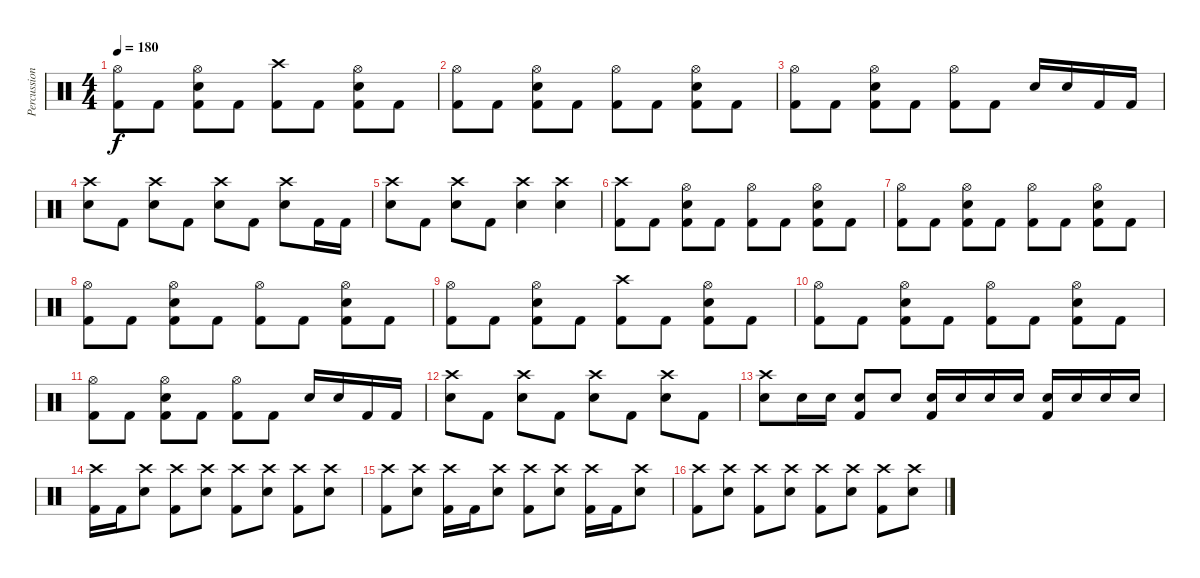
\track ("Percussion" "Percussion") {instrument percussion}
\staff {score}
\articulation defaults
\ts (4 4)
\tempo 180
\clef neutral
\ks c
("Hi-Hat (open)" "Kick (hit) 2").8{dy f} "Kick (hit) 2".8 ("Hi-Hat (open)" "Snare (hit) 2" "Kick (hit) 2").8 "Kick (hit) 2".8 ("Crash high (hit)" "Kick (hit) 2").8 "Kick (hit) 2".8 ("Hi-Hat (open)" "Snare (hit) 2" "Kick (hit) 2").8 "Kick (hit) 2".8 |
("Hi-Hat (open)" "Kick (hit) 2").8 "Kick (hit) 2".8 ("Hi-Hat (open)" "Snare (hit) 2" "Kick (hit) 2").8 "Kick (hit) 2".8 ("Hi-Hat (open)" "Kick (hit) 2").8 "Kick (hit) 2".8 ("Hi-Hat (open)" "Snare (hit) 2" "Kick (hit) 2").8 "Kick (hit) 2".8 |
("Hi-Hat (open)" "Kick (hit) 2").8 "Kick (hit) 2".8 ("Hi-Hat (open)" "Snare (hit) 2" "Kick (hit) 2").8 "Kick (hit) 2".8 ("Hi-Hat (open)" "Kick (hit) 2").8 "Kick (hit) 2".8 "Snare (hit) 2".16 "Snare (hit) 2".16 "Kick (hit) 2".16 "Kick (hit) 2".16 |
("Crash high (hit)" "Snare (hit) 2").8 "Kick (hit) 2".8 ("Crash high (hit)" "Snare (hit) 2").8 "Kick (hit) 2".8 ("Crash high (hit)" "Snare (hit) 2").8 "Kick (hit) 2".8 ("Crash high (hit)" "Snare (hit) 2").8 "Kick (hit) 2".16 "Kick (hit) 2".16 |
("Crash high (hit)" "Snare (hit) 2").8 "Kick (hit) 2".8 ("Crash high (hit)" "Snare (hit) 2").8 "Kick (hit) 2".8 ("Crash high (hit)" "Snare (hit) 2").4 ("Crash high (hit)" "Snare (hit) 2").4 |
("Crash high (hit)" "Kick (hit) 2").8 "Kick (hit) 2".8 ("Hi-Hat (open)" "Snare (hit) 2" "Kick (hit) 2").8 "Kick (hit) 2".8 ("Hi-Hat (open)" "Kick (hit) 2").8 "Kick (hit) 2".8 ("Hi-Hat (open)" "Snare (hit) 2" "Kick (hit) 2").8 "Kick (hit) 2".8 |
("Hi-Hat (open)" "Kick (hit) 2").8 "Kick (hit) 2".8 ("Hi-Hat (open)" "Snare (hit) 2" "Kick (hit) 2").8 "Kick (hit) 2".8 ("Hi-Hat (open)" "Kick (hit) 2").8 "Kick (hit) 2".8 ("Hi-Hat (open)" "Snare (hit) 2" "Kick (hit) 2").8 "Kick (hit) 2".8 |
("Hi-Hat (open)" "Kick (hit) 2").8 "Kick (hit) 2".8 ("Hi-Hat (open)" "Snare (hit) 2" "Kick (hit) 2").8 "Kick (hit) 2".8 ("Hi-Hat (open)" "Kick (hit) 2").8 "Kick (hit) 2".8 ("Hi-Hat (open)" "Snare (hit) 2" "Kick (hit) 2").8 "Kick (hit) 2".8 |
("Hi-Hat (open)" "Kick (hit) 2").8 "Kick (hit) 2".8 ("Hi-Hat (open)" "Snare (hit) 2" "Kick (hit) 2").8 "Kick (hit) 2".8 ("Crash high (hit)" "Kick (hit) 2").8 "Kick (hit) 2".8 ("Hi-Hat (open)" "Snare (hit) 2" "Kick (hit) 2").8 "Kick (hit) 2".8 |
("Hi-Hat (open)" "Kick (hit) 2").8 "Kick (hit) 2".8 ("Hi-Hat (open)" "Snare (hit) 2" "Kick (hit) 2").8 "Kick (hit) 2".8 ("Hi-Hat (open)" "Kick (hit) 2").8 "Kick (hit) 2".8 ("Hi-Hat (open)" "Snare (hit) 2" "Kick (hit) 2").8 "Kick (hit) 2".8 |
("Hi-Hat (open)" "Kick (hit) 2").8 "Kick (hit) 2".8 ("Hi-Hat (open)" "Snare (hit) 2" "Kick (hit) 2").8 "Kick (hit) 2".8 ("Hi-Hat (open)" "Kick (hit) 2").8 "Kick (hit) 2".8 "Snare (hit) 2".16 "Snare (hit) 2".16 "Kick (hit) 2".16 "Kick (hit) 2".16 |
("Crash high (hit)" "Snare (hit) 2").8 "Kick (hit) 2".8 ("Crash high (hit)" "Snare (hit) 2").8 "Kick (hit) 2".8 ("Crash high (hit)" "Snare (hit) 2").8 "Kick (hit) 2".8 ("Crash high (hit)" "Snare (hit) 2").8 "Kick (hit) 2".8 |
("Crash high (hit)" "Snare (hit) 2").8 "Snare (hit) 2".16 "Snare (hit) 2".16 ("Snare (hit) 2" "Kick (hit) 2").8 "Snare (hit) 2".8 ("Snare (hit) 2" "Kick (hit) 2").16 "Snare (hit) 2".16 "Snare (hit) 2".16 "Snare (hit) 2".16 ("Snare (hit) 2" "Kick (hit) 2").16 "Snare (hit) 2".16 "Snare (hit) 2".16 "Snare (hit) 2".16 |
("Crash high (hit)" "Kick (hit) 2").16 "Kick (hit) 2".16 ("Crash high (hit)" "Snare (hit) 2").8 ("Crash high (hit)" "Kick (hit) 2").8 ("Crash high (hit)" "Snare (hit) 2").8 ("Crash high (hit)" "Kick (hit) 2").8 ("Crash high (hit)" "Snare (hit) 2").8 ("Crash high (hit)" "Kick (hit) 2").8 ("Crash high (hit)" "Snare (hit) 2").8 |
("Crash high (hit)" "Kick (hit) 2").8 ("Crash high (hit)" "Snare (hit) 2").8 ("Crash high (hit)" "Kick (hit) 2").16 "Kick (hit) 2".16 ("Crash high (hit)" "Snare (hit) 2").8 ("Crash high (hit)" "Kick (hit) 2").8 ("Crash high (hit)" "Snare (hit) 2").8 ("Crash high (hit)" "Kick (hit) 2").16 "Kick (hit) 2".16 ("Crash high (hit)" "Snare (hit) 2").8 |
("Crash high (hit)" "Kick (hit) 2").8 ("Crash high (hit)" "Snare (hit) 2").8 ("Crash high (hit)" "Kick (hit) 2").8 ("Crash high (hit)" "Snare (hit) 2").8 ("Crash high (hit)" "Kick (hit) 2").8 ("Crash high (hit)" "Snare (hit) 2").8 ("Crash high (hit)" "Kick (hit) 2").8 ("Crash high (hit)" "Snare (hit) 2").8
